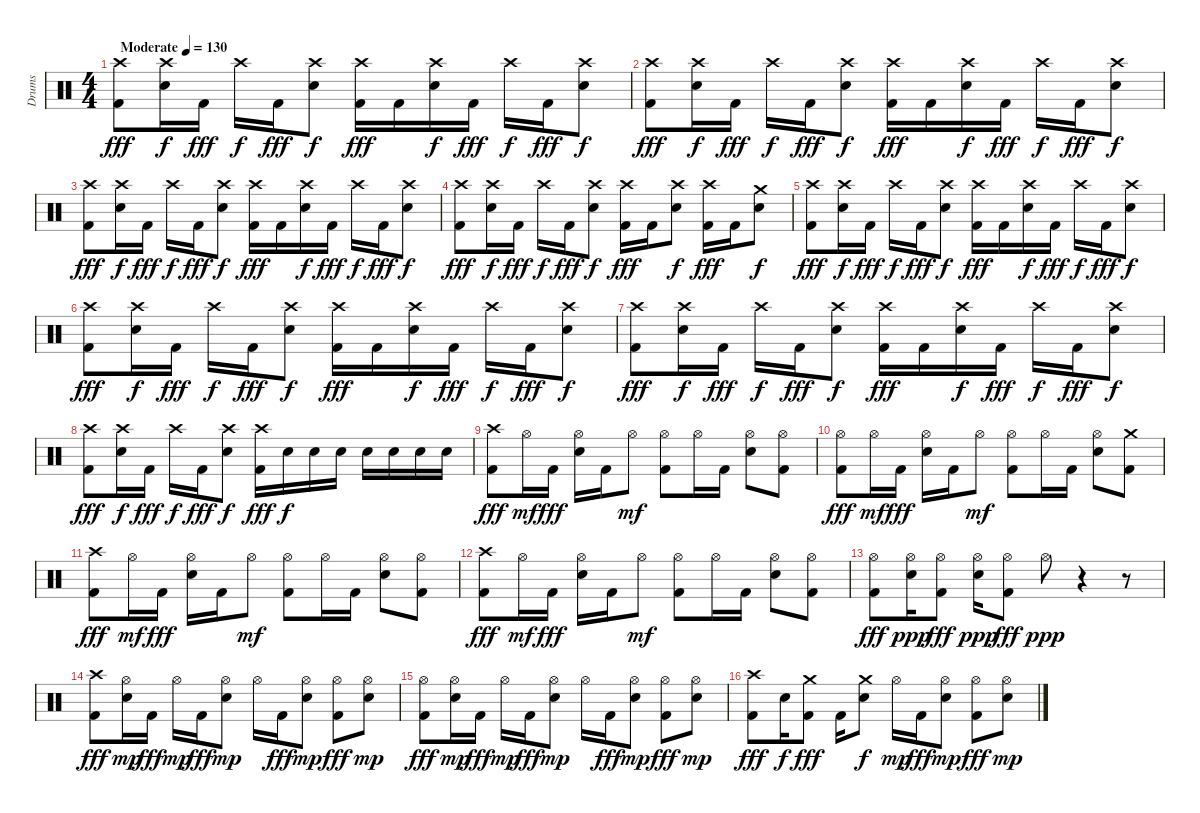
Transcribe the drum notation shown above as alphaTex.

\track ("Drums" "Drums") {instrument percussion}
\staff {score}
\articulation defaults
\ts (4 4)
\tempo (130 "Moderate")
\clef neutral
\ks c
("Crash high (hit)" "Kick (hit) 2").8{dy fff} ("Crash high (hit)" "Electric Snare (hit)").16{dy f} "Kick (hit) 2".16{dy fff} "Crash high (hit)".16{dy f} "Kick (hit) 2".16{dy fff} ("Crash high (hit)" "Electric Snare (hit)").8{dy f} ("Crash high (hit)" "Kick (hit) 2").16{dy fff} "Kick (hit) 2".16 ("Crash high (hit)" "Electric Snare (hit)").16{dy f} "Kick (hit) 2".16{dy fff} "Crash high (hit)".16{dy f} "Kick (hit) 2".16{dy fff} ("Crash high (hit)" "Electric Snare (hit)").8{dy f} |
("Crash high (hit)" "Kick (hit) 2").8{dy fff} ("Crash high (hit)" "Electric Snare (hit)").16{dy f} "Kick (hit) 2".16{dy fff} "Crash high (hit)".16{dy f} "Kick (hit) 2".16{dy fff} ("Crash high (hit)" "Electric Snare (hit)").8{dy f} ("Crash high (hit)" "Kick (hit) 2").16{dy fff} "Kick (hit) 2".16 ("Crash high (hit)" "Electric Snare (hit)").16{dy f} "Kick (hit) 2".16{dy fff} "Crash high (hit)".16{dy f} "Kick (hit) 2".16{dy fff} ("Crash high (hit)" "Electric Snare (hit)").8{dy f} |
("Crash high (hit)" "Kick (hit) 2").8{dy fff} ("Crash high (hit)" "Electric Snare (hit)").16{dy f} "Kick (hit) 2".16{dy fff} "Crash high (hit)".16{dy f} "Kick (hit) 2".16{dy fff} ("Crash high (hit)" "Electric Snare (hit)").8{dy f} ("Crash high (hit)" "Kick (hit) 2").16{dy fff} "Kick (hit) 2".16 ("Crash high (hit)" "Electric Snare (hit)").16{dy f} "Kick (hit) 2".16{dy fff} "Crash high (hit)".16{dy f} "Kick (hit) 2".16{dy fff} ("Crash high (hit)" "Electric Snare (hit)").8{dy f} |
("Crash high (hit)" "Kick (hit) 2").8{dy fff} ("Crash high (hit)" "Electric Snare (hit)").16{dy f} "Kick (hit) 2".16{dy fff} "Crash high (hit)".16{dy f} "Kick (hit) 2".16{dy fff} ("Crash high (hit)" "Electric Snare (hit)").8{dy f} ("Crash high (hit)" "Kick (hit) 2").16{dy fff} "Kick (hit) 2".16 ("Crash high (hit)" "Electric Snare (hit)").8{dy f} ("Crash high (hit)" "Kick (hit) 2").16{dy fff} "Kick (hit) 2".16 ("Crash medium (hit)" "Electric Snare (hit)").8{dy f} |
("Crash high (hit)" "Kick (hit) 2").8{dy fff} ("Crash high (hit)" "Electric Snare (hit)").16{dy f} "Kick (hit) 2".16{dy fff} "Crash high (hit)".16{dy f} "Kick (hit) 2".16{dy fff} ("Crash high (hit)" "Electric Snare (hit)").8{dy f} ("Crash high (hit)" "Kick (hit) 2").16{dy fff} "Kick (hit) 2".16 ("Crash high (hit)" "Electric Snare (hit)").16{dy f} "Kick (hit) 2".16{dy fff} "Crash high (hit)".16{dy f} "Kick (hit) 2".16{dy fff} ("Crash high (hit)" "Electric Snare (hit)").8{dy f} |
("Crash high (hit)" "Kick (hit) 2").8{dy fff} ("Crash high (hit)" "Electric Snare (hit)").16{dy f} "Kick (hit) 2".16{dy fff} "Crash high (hit)".16{dy f} "Kick (hit) 2".16{dy fff} ("Crash high (hit)" "Electric Snare (hit)").8{dy f} ("Crash high (hit)" "Kick (hit) 2").16{dy fff} "Kick (hit) 2".16 ("Crash high (hit)" "Electric Snare (hit)").16{dy f} "Kick (hit) 2".16{dy fff} "Crash high (hit)".16{dy f} "Kick (hit) 2".16{dy fff} ("Crash high (hit)" "Electric Snare (hit)").8{dy f} |
("Crash high (hit)" "Kick (hit) 2").8{dy fff} ("Crash high (hit)" "Electric Snare (hit)").16{dy f} "Kick (hit) 2".16{dy fff} "Crash high (hit)".16{dy f} "Kick (hit) 2".16{dy fff} ("Crash high (hit)" "Electric Snare (hit)").8{dy f} ("Crash high (hit)" "Kick (hit) 2").16{dy fff} "Kick (hit) 2".16 ("Crash high (hit)" "Electric Snare (hit)").16{dy f} "Kick (hit) 2".16{dy fff} "Crash high (hit)".16{dy f} "Kick (hit) 2".16{dy fff} ("Crash high (hit)" "Electric Snare (hit)").8{dy f} |
("Crash high (hit)" "Kick (hit) 2").8{dy fff} ("Crash high (hit)" "Electric Snare (hit)").16{dy f} "Kick (hit) 2".16{dy fff} "Crash high (hit)".16{dy f} "Kick (hit) 2".16{dy fff} ("Crash high (hit)" "Electric Snare (hit)").8{dy f} ("Crash high (hit)" "Kick (hit) 2").16{dy fff} "Electric Snare (hit)".16{dy f} "Electric Snare (hit)".16 "Electric Snare (hit)".16 "Electric Snare (hit)".16 "Electric Snare (hit)".16 "Electric Snare (hit)".16 "Electric Snare (hit)".16 |
("Crash high (hit)" "Kick (hit) 2").8{dy fff} "Hi-Hat (open)".16{dy mf} "Kick (hit) 2".16{dy fff} ("Hi-Hat (open)" "Electric Snare (hit)").16 "Kick (hit) 2".16 "Hi-Hat (open)".8{dy mf} ("Hi-Hat (open)" "Kick (hit) 2").8 "Hi-Hat (open)".16 "Kick (hit) 2".16 ("Hi-Hat (open)" "Electric Snare (hit)").8 ("Hi-Hat (open)" "Kick (hit) 2").8 |
("Hi-Hat (open)" "Kick (hit) 2").8{dy fff} "Hi-Hat (open)".16{dy mf} "Kick (hit) 2".16{dy fff} ("Hi-Hat (open)" "Electric Snare (hit)").16 "Kick (hit) 2".16 "Hi-Hat (open)".8{dy mf} ("Hi-Hat (open)" "Kick (hit) 2").8 "Hi-Hat (open)".16 "Kick (hit) 2".16 ("Hi-Hat (open)" "Electric Snare (hit)").8 ("Crash medium (hit)" "Kick (hit) 2").8 |
("Crash high (hit)" "Kick (hit) 2").8{dy fff} "Hi-Hat (open)".16{dy mf} "Kick (hit) 2".16{dy fff} ("Hi-Hat (open)" "Electric Snare (hit)").16 "Kick (hit) 2".16 "Hi-Hat (open)".8{dy mf} ("Hi-Hat (open)" "Kick (hit) 2").8 "Hi-Hat (open)".16 "Kick (hit) 2".16 ("Hi-Hat (open)" "Electric Snare (hit)").8 ("Hi-Hat (open)" "Kick (hit) 2").8 |
("Crash high (hit)" "Kick (hit) 2").8{dy fff} "Hi-Hat (open)".16{dy mf} "Kick (hit) 2".16{dy fff} ("Hi-Hat (open)" "Electric Snare (hit)").16 "Kick (hit) 2".16 "Hi-Hat (open)".8{dy mf} ("Hi-Hat (open)" "Kick (hit) 2").8 "Hi-Hat (open)".16 "Kick (hit) 2".16 ("Hi-Hat (open)" "Electric Snare (hit)").8 ("Hi-Hat (open)" "Kick (hit) 2").8 |
("Hi-Hat (open)" "Kick (hit) 2").8{dy fff} ("Hi-Hat (open)" "Electric Snare (hit)").16{dy ppp} ("Hi-Hat (open)" "Kick (hit) 2").8{dy fff} ("Hi-Hat (open)" "Electric Snare (hit)").16{dy ppp} ("Hi-Hat (open)" "Kick (hit) 2").8{dy fff} "Hi-Hat (open)".8{dy ppp} r.4 r.8 |
("Crash high (hit)" "Kick (hit) 2").8{dy fff} ("Hi-Hat (open)" "Electric Snare (hit)").16{dy mp} "Kick (hit) 2".16{dy fff} "Hi-Hat (open)".16{dy mp} "Kick (hit) 2".16{dy fff} ("Hi-Hat (open)" "Electric Snare (hit)").8{dy mp} "Hi-Hat (open)".16 "Kick (hit) 2".16{dy fff} ("Hi-Hat (open)" "Electric Snare (hit)").8{dy mp} ("Hi-Hat (open)" "Kick (hit) 2").8{dy fff} ("Hi-Hat (open)" "Electric Snare (hit)").8{dy mp} |
("Hi-Hat (open)" "Kick (hit) 2").8{dy fff} ("Hi-Hat (open)" "Electric Snare (hit)").16{dy mp} "Kick (hit) 2".16{dy fff} "Hi-Hat (open)".16{dy mp} "Kick (hit) 2".16{dy fff} ("Hi-Hat (open)" "Electric Snare (hit)").8{dy mp} "Hi-Hat (open)".16 "Kick (hit) 2".16{dy fff} ("Hi-Hat (open)" "Electric Snare (hit)").8{dy mp} ("Hi-Hat (open)" "Kick (hit) 2").8{dy fff} ("Hi-Hat (open)" "Electric Snare (hit)").8{dy mp} |
("Crash high (hit)" "Kick (hit) 2").8{dy fff} "Electric Snare (hit)".16{dy f} ("Crash medium (hit)" "Kick (hit) 2").8{dy fff} "Kick (hit) 2".16 ("Crash medium (hit)" "Electric Snare (hit)").8{dy f} "Hi-Hat (open)".16{dy mp} "Kick (hit) 2".16{dy fff} ("Hi-Hat (open)" "Electric Snare (hit)").8{dy mp} ("Hi-Hat (open)" "Kick (hit) 2").8{dy fff} ("Hi-Hat (open)" "Electric Snare (hit)").8{dy mp}
